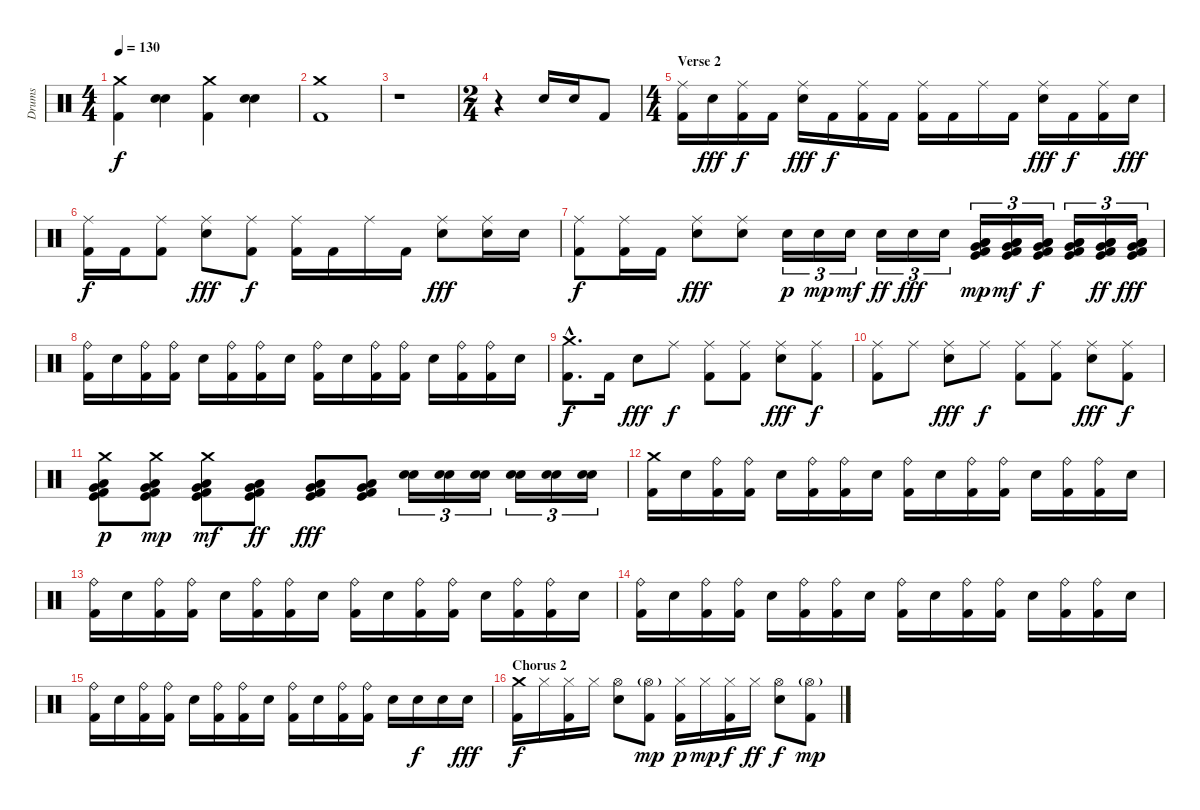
\track ("Drums" "Drums") {instrument percussion}
\staff {score}
\articulation defaults
\ts (4 4)
\tempo 130
\clef neutral
\ks c
("Crash medium (hit)" "Kick (hit) 2").4{dy f} ("Snare (hit) 2" "Electric Snare (hit)").4 ("Crash medium (hit)" "Kick (hit) 2").4 ("Snare (hit) 2" "Electric Snare (hit)").4 |
("Crash medium (hit)" "Kick (hit) 2").1 |
r.1 |
\ts (2 4)
r.4{volume 14} "Snare (hit) 2".16 "Snare (hit) 2".16 "Kick (hit) 2".8 |
\ts (4 4)
\section ("" "Verse 2")
("Ride (middle)" "Kick (hit) 2").16 "Electric Snare (hit)".16{dy fff} ("Ride (middle)" "Kick (hit) 2").16{dy f} "Kick (hit) 2".16 ("Ride (middle)" "Electric Snare (hit)").16{dy fff} "Kick (hit) 2".16{dy f} ("Ride (middle)" "Kick (hit) 2").16 "Kick (hit) 2".16 ("Ride (middle)" "Kick (hit) 2").16 "Kick (hit) 2".16 "Ride (middle)".16 "Kick (hit) 2".16 ("Ride (middle)" "Electric Snare (hit)").16{dy fff} "Kick (hit) 2".16{dy f} ("Ride (middle)" "Kick (hit) 2").16 "Electric Snare (hit)".16{dy fff} |
("Ride (middle)" "Kick (hit) 2").16{dy f} "Kick (hit) 2".16 ("Ride (middle)" "Kick (hit) 2").8 ("Ride (middle)" "Electric Snare (hit)").8{dy fff} ("Ride (middle)" "Kick (hit) 2").8{dy f} ("Ride (middle)" "Kick (hit) 2").16 "Kick (hit) 2".16 "Ride (middle)".16 "Kick (hit) 2".16 ("Ride (middle)" "Electric Snare (hit)").8{dy fff} ("Ride (middle)" "Electric Snare (hit)").16 "Electric Snare (hit)".16 |
("Ride (middle)" "Kick (hit) 2").8{dy f} ("Ride (middle)" "Kick (hit) 2").16 "Kick (hit) 2".16 ("Ride (middle)" "Electric Snare (hit)").8{dy fff} ("Ride (middle)" "Electric Snare (hit)").8 "Electric Snare (hit)".16{tu (3 2) dy p} "Electric Snare (hit)".16{tu (3 2) dy mp} "Electric Snare (hit)".16{tu (3 2) dy mf} "Electric Snare (hit)".16{tu (3 2) dy ff} "Electric Snare (hit)".16{tu (3 2) dy fff} "Electric Snare (hit)".16{tu (3 2)} ("Low Tom (hit)" "Low Floor Tom (hit)" "Very Low Tom (hit)" "Kick (hit)" "Kick (hit) 2").16{tu (3 2) dy mp} ("Low Tom (hit)" "Low Floor Tom (hit)" "Very Low Tom (hit)" "Kick (hit)" "Kick (hit) 2").16{tu (3 2) dy mf} ("Low Tom (hit)" "Low Floor Tom (hit)" "Very Low Tom (hit)" "Kick (hit)" "Kick (hit) 2").16{tu (3 2) dy f} ("Low Tom (hit)" "Low Floor Tom (hit)" "Very Low Tom (hit)" "Kick (hit)" "Kick (hit) 2").16{tu (3 2)} ("Low Tom (hit)" "Low Floor Tom (hit)" "Very Low Tom (hit)" "Kick (hit)" "Kick (hit) 2").16{tu (3 2) dy ff} ("Low Tom (hit)" "Low Floor Tom (hit)" "Very Low Tom (hit)" "Kick (hit)" "Kick (hit) 2").16{tu (3 2) dy fff} |
("Ride (bell)" "Kick (hit) 2").16 "Electric Snare (hit)".16 ("Ride (bell)" "Kick (hit) 2").16 ("Ride (bell)" "Kick (hit) 2").16 "Electric Snare (hit)".16 ("Ride (bell)" "Kick (hit) 2").16 ("Ride (bell)" "Kick (hit) 2").16 "Electric Snare (hit)".16 ("Ride (bell)" "Kick (hit) 2").16 "Electric Snare (hit)".16 ("Ride (bell)" "Kick (hit) 2").16 ("Ride (bell)" "Kick (hit) 2").16 "Electric Snare (hit)".16 ("Ride (bell)" "Kick (hit) 2").16 ("Ride (bell)" "Kick (hit) 2").16 "Electric Snare (hit)".16 |
("Crash medium (hit)"{hac} "Kick (hit) 2"{hac}).8{d dy f} "Kick (hit) 2".16 "Electric Snare (hit)".8{dy fff} "Ride (middle)".8{dy f} ("Ride (middle)" "Kick (hit) 2").8 ("Ride (middle)" "Kick (hit) 2").8 ("Ride (middle)" "Electric Snare (hit)").8{dy fff} ("Ride (middle)" "Kick (hit) 2").8{dy f} |
("Ride (middle)" "Kick (hit) 2").8 "Ride (middle)".8 ("Ride (middle)" "Electric Snare (hit)").8{dy fff} "Ride (middle)".8{dy f} ("Ride (middle)" "Kick (hit) 2").8 ("Ride (middle)" "Kick (hit) 2").8 ("Ride (middle)" "Electric Snare (hit)").8{dy fff} ("Ride (middle)" "Kick (hit) 2").8{dy f} |
("Crash medium (hit)" "Very Low Tom (hit)" "Low Floor Tom (hit)" "Kick (hit)" "Kick (hit) 2").8{dy p} ("Crash medium (hit)" "Very Low Tom (hit)" "Low Floor Tom (hit)" "Kick (hit)" "Kick (hit) 2").8{dy mp} ("Crash medium (hit)" "Very Low Tom (hit)" "Low Floor Tom (hit)" "Kick (hit)" "Kick (hit) 2").8{dy mf} ("Very Low Tom (hit)" "Low Floor Tom (hit)" "Kick (hit)" "Kick (hit) 2").8{dy ff} ("Very Low Tom (hit)" "Low Floor Tom (hit)" "Kick (hit)" "Kick (hit) 2").8{dy fff} ("Very Low Tom (hit)" "Low Floor Tom (hit)" "Kick (hit)" "Kick (hit) 2").8 ("Electric Snare (hit)" "Snare (hit) 2").16{tu (3 2) bd 60} ("Electric Snare (hit)" "Snare (hit) 2").16{tu (3 2) bd 60} ("Electric Snare (hit)" "Snare (hit) 2").16{tu (3 2) bd 60} ("Electric Snare (hit)" "Snare (hit) 2").16{tu (3 2) bd 60} ("Electric Snare (hit)" "Snare (hit) 2").16{tu (3 2) bd 60} ("Electric Snare (hit)" "Snare (hit) 2").16{tu (3 2) bd 60} |
("Crash medium (hit)" "Kick (hit) 2").16 "Electric Snare (hit)".16 ("Ride (bell)" "Kick (hit) 2").16 ("Ride (bell)" "Kick (hit) 2").16 "Electric Snare (hit)".16 ("Ride (bell)" "Kick (hit) 2").16 ("Ride (bell)" "Kick (hit) 2").16 "Electric Snare (hit)".16 ("Ride (bell)" "Kick (hit) 2").16 "Electric Snare (hit)".16 ("Ride (bell)" "Kick (hit) 2").16 ("Ride (bell)" "Kick (hit) 2").16 "Electric Snare (hit)".16 ("Ride (bell)" "Kick (hit) 2").16 ("Ride (bell)" "Kick (hit) 2").16 "Electric Snare (hit)".16 |
("Ride (bell)" "Kick (hit) 2").16 "Electric Snare (hit)".16 ("Ride (bell)" "Kick (hit) 2").16 ("Ride (bell)" "Kick (hit) 2").16 "Electric Snare (hit)".16 ("Ride (bell)" "Kick (hit) 2").16 ("Ride (bell)" "Kick (hit) 2").16 "Electric Snare (hit)".16 ("Ride (bell)" "Kick (hit) 2").16 "Electric Snare (hit)".16 ("Ride (bell)" "Kick (hit) 2").16 ("Ride (bell)" "Kick (hit) 2").16 "Electric Snare (hit)".16 ("Ride (bell)" "Kick (hit) 2").16 ("Ride (bell)" "Kick (hit) 2").16 "Electric Snare (hit)".16 |
("Ride (bell)" "Kick (hit) 2").16 "Electric Snare (hit)".16 ("Ride (bell)" "Kick (hit) 2").16 ("Ride (bell)" "Kick (hit) 2").16 "Electric Snare (hit)".16 ("Ride (bell)" "Kick (hit) 2").16 ("Ride (bell)" "Kick (hit) 2").16 "Electric Snare (hit)".16 ("Ride (bell)" "Kick (hit) 2").16 "Electric Snare (hit)".16 ("Ride (bell)" "Kick (hit) 2").16 ("Ride (bell)" "Kick (hit) 2").16 "Electric Snare (hit)".16 ("Ride (bell)" "Kick (hit) 2").16 ("Ride (bell)" "Kick (hit) 2").16 "Electric Snare (hit)".16 |
("Ride (bell)" "Kick (hit) 2").16 "Electric Snare (hit)".16 ("Ride (bell)" "Kick (hit) 2").16 ("Ride (bell)" "Kick (hit) 2").16 "Electric Snare (hit)".16 ("Ride (bell)" "Kick (hit) 2").16 ("Ride (bell)" "Kick (hit) 2").16 "Electric Snare (hit)".16 ("Ride (bell)" "Kick (hit) 2").16 "Electric Snare (hit)".16 ("Ride (bell)" "Kick (hit) 2").16 ("Ride (bell)" "Kick (hit) 2").16 "Electric Snare (hit)".16 "Electric Snare (hit)".16{dy f} "Electric Snare (hit)".16 "Electric Snare (hit)".16{dy fff} |
\section ("" "Chorus 2")
("Crash medium (hit)" "Kick (hit) 2").16{dy f} "Hi-Hat (closed)".16 ("Hi-Hat (closed)" "Kick (hit) 2").16 "Hi-Hat (closed)".16 ("Hi-Hat (open)" "Electric Snare (hit)").8 ("Hi-Hat (open)"{g} "Kick (hit) 2").8{dy mp} ("Hi-Hat (closed)" "Kick (hit) 2").16{dy p} "Hi-Hat (closed)".16{dy mp} ("Hi-Hat (closed)" "Kick (hit) 2").16{dy f} "Hi-Hat (closed)".16{dy ff} ("Hi-Hat (open)" "Electric Snare (hit)").8{dy f} ("Hi-Hat (open)"{g} "Kick (hit) 2").8{dy mp}
